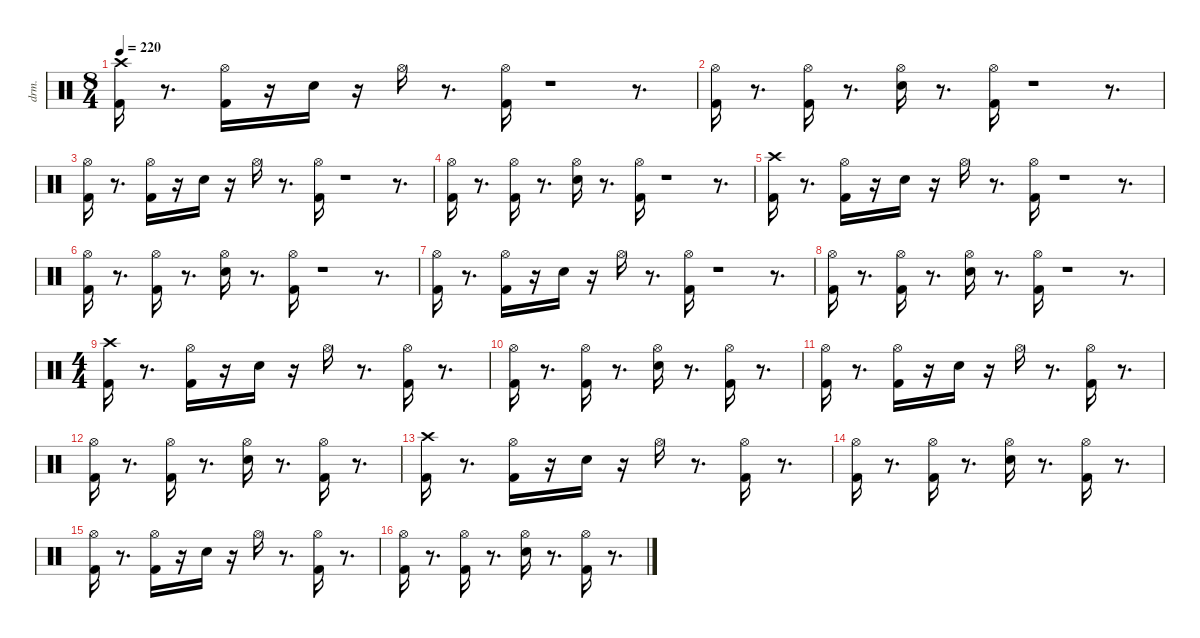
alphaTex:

\defaultSystemsLayout 4
\hideDynamics
\bracketExtendMode nobrackets
\otherSystemsTrackNameOrientation horizontal
\track ("EZdrummer 3" "drm.") {instrument percussion}
\staff {score}
\articulation defaults
\ts (8 4)
\tempo 220
\clef neutral
\ks c
("Kick (hit) 2" "Crash high (hit)"{acc #}).16{dy fff beam Down} r.8{d beam Down} ("Kick (hit) 2" "Hi-Hat (open)"{acc #}).16{dy ff beam Down} r.16{beam Down} "Snare (hit) 2".16{beam Down} r.16{beam Down} "Hi-Hat (open)"{acc #}.16{beam Down} r.8{d beam Down} ("Kick (hit) 2" "Hi-Hat (open)"{acc #}).16{beam Down} r.1{beam Down} r.8{d beam Down} |
("Kick (hit) 2" "Hi-Hat (open)"{acc #}).16{beam Down} r.8{d beam Down} ("Kick (hit) 2" "Hi-Hat (open)"{acc #}).16{beam Down} r.8{d beam Down} ("Snare (hit) 2" "Hi-Hat (open)"{acc #}).16{beam Down} r.8{d beam Down} ("Kick (hit) 2" "Hi-Hat (open)"{acc #}).16{dy mf beam Down} r.1{beam Down} r.8{d beam Down} |
("Kick (hit) 2" "Hi-Hat (open)"{acc #}).16{dy fff beam Down} r.8{d beam Down} ("Kick (hit) 2" "Hi-Hat (open)"{acc #}).16{dy ff beam Down} r.16{beam Down} "Snare (hit) 2".16{beam Down} r.16{beam Down} "Hi-Hat (open)"{acc #}.16{beam Down} r.8{d beam Down} ("Kick (hit) 2" "Hi-Hat (open)"{acc #}).16{beam Down} r.1{beam Down} r.8{d beam Down} |
("Kick (hit) 2" "Hi-Hat (open)"{acc #}).16{beam Down} r.8{d beam Down} ("Kick (hit) 2" "Hi-Hat (open)"{acc #}).16{beam Down} r.8{d beam Down} ("Snare (hit) 2" "Hi-Hat (open)"{acc #}).16{beam Down} r.8{d beam Down} ("Kick (hit) 2" "Hi-Hat (open)"{acc #}).16{dy mf beam Down} r.1{beam Down} r.8{d beam Down} |
("Kick (hit) 2" "Crash high (hit)"{acc #}).16{dy fff beam Down} r.8{d beam Down} ("Kick (hit) 2" "Hi-Hat (open)"{acc #}).16{dy ff beam Down} r.16{beam Down} "Snare (hit) 2".16{beam Down} r.16{beam Down} "Hi-Hat (open)"{acc #}.16{beam Down} r.8{d beam Down} ("Kick (hit) 2" "Hi-Hat (open)"{acc #}).16{beam Down} r.1{beam Down} r.8{d beam Down} |
("Kick (hit) 2" "Hi-Hat (open)"{acc #}).16{beam Down} r.8{d beam Down} ("Kick (hit) 2" "Hi-Hat (open)"{acc #}).16{beam Down} r.8{d beam Down} ("Snare (hit) 2" "Hi-Hat (open)"{acc #}).16{beam Down} r.8{d beam Down} ("Kick (hit) 2" "Hi-Hat (open)"{acc #}).16{dy mf beam Down} r.1{beam Down} r.8{d beam Down} |
("Kick (hit) 2" "Hi-Hat (open)"{acc #}).16{dy fff beam Down} r.8{d beam Down} ("Kick (hit) 2" "Hi-Hat (open)"{acc #}).16{dy ff beam Down} r.16{beam Down} "Snare (hit) 2".16{beam Down} r.16{beam Down} "Hi-Hat (open)"{acc #}.16{beam Down} r.8{d beam Down} ("Kick (hit) 2" "Hi-Hat (open)"{acc #}).16{beam Down} r.1{beam Down} r.8{d beam Down} |
("Kick (hit) 2" "Hi-Hat (open)"{acc #}).16{beam Down} r.8{d beam Down} ("Kick (hit) 2" "Hi-Hat (open)"{acc #}).16{beam Down} r.8{d beam Down} ("Snare (hit) 2" "Hi-Hat (open)"{acc #}).16{beam Down} r.8{d beam Down} ("Kick (hit) 2" "Hi-Hat (open)"{acc #}).16{dy mf beam Down} r.1{beam Down} r.8{d beam Down} |
\ts (4 4)
("Kick (hit) 2" "Crash high (hit)"{acc #}).16{dy fff beam Down} r.8{d beam Down} ("Kick (hit) 2" "Hi-Hat (open)"{acc #}).16{dy ff beam Down} r.16{beam Down} "Snare (hit) 2".16{beam Down} r.16{beam Down} "Hi-Hat (open)"{acc #}.16{beam Down} r.8{d beam Down} ("Kick (hit) 2" "Hi-Hat (open)"{acc #}).16{beam Down} r.8{d beam Down} |
("Kick (hit) 2" "Hi-Hat (open)"{acc #}).16{beam Down} r.8{d beam Down} ("Kick (hit) 2" "Hi-Hat (open)"{acc #}).16{beam Down} r.8{d beam Down} ("Snare (hit) 2" "Hi-Hat (open)"{acc #}).16{beam Down} r.8{d beam Down} ("Kick (hit) 2" "Hi-Hat (open)"{acc #}).16{dy mf beam Down} r.8{d beam Down} |
("Kick (hit) 2" "Hi-Hat (open)"{acc #}).16{dy fff beam Down} r.8{d beam Down} ("Kick (hit) 2" "Hi-Hat (open)"{acc #}).16{dy ff beam Down} r.16{beam Down} "Snare (hit) 2".16{beam Down} r.16{beam Down} "Hi-Hat (open)"{acc #}.16{beam Down} r.8{d beam Down} ("Kick (hit) 2" "Hi-Hat (open)"{acc #}).16{beam Down} r.8{d beam Down} |
("Kick (hit) 2" "Hi-Hat (open)"{acc #}).16{beam Down} r.8{d beam Down} ("Kick (hit) 2" "Hi-Hat (open)"{acc #}).16{beam Down} r.8{d beam Down} ("Snare (hit) 2" "Hi-Hat (open)"{acc #}).16{beam Down} r.8{d beam Down} ("Kick (hit) 2" "Hi-Hat (open)"{acc #}).16{dy mf beam Down} r.8{d beam Down} |
("Kick (hit) 2" "Crash high (hit)"{acc #}).16{dy fff beam Down} r.8{d beam Down} ("Kick (hit) 2" "Hi-Hat (open)"{acc #}).16{dy ff beam Down} r.16{beam Down} "Snare (hit) 2".16{beam Down} r.16{beam Down} "Hi-Hat (open)"{acc #}.16{beam Down} r.8{d beam Down} ("Kick (hit) 2" "Hi-Hat (open)"{acc #}).16{beam Down} r.8{d beam Down} |
("Kick (hit) 2" "Hi-Hat (open)"{acc #}).16{beam Down} r.8{d beam Down} ("Kick (hit) 2" "Hi-Hat (open)"{acc #}).16{beam Down} r.8{d beam Down} ("Snare (hit) 2" "Hi-Hat (open)"{acc #}).16{beam Down} r.8{d beam Down} ("Kick (hit) 2" "Hi-Hat (open)"{acc #}).16{dy mf beam Down} r.8{d beam Down} |
("Kick (hit) 2" "Hi-Hat (open)"{acc #}).16{dy fff beam Down} r.8{d beam Down} ("Kick (hit) 2" "Hi-Hat (open)"{acc #}).16{dy ff beam Down} r.16{beam Down} "Snare (hit) 2".16{beam Down} r.16{beam Down} "Hi-Hat (open)"{acc #}.16{beam Down} r.8{d beam Down} ("Kick (hit) 2" "Hi-Hat (open)"{acc #}).16{beam Down} r.8{d beam Down} |
("Kick (hit) 2" "Hi-Hat (open)"{acc #}).16{beam Down} r.8{d beam Down} ("Kick (hit) 2" "Hi-Hat (open)"{acc #}).16{beam Down} r.8{d beam Down} ("Snare (hit) 2" "Hi-Hat (open)"{acc #}).16{beam Down} r.8{d beam Down} ("Kick (hit) 2" "Hi-Hat (open)"{acc #}).16{dy mf beam Down} r.8{d beam Down}
